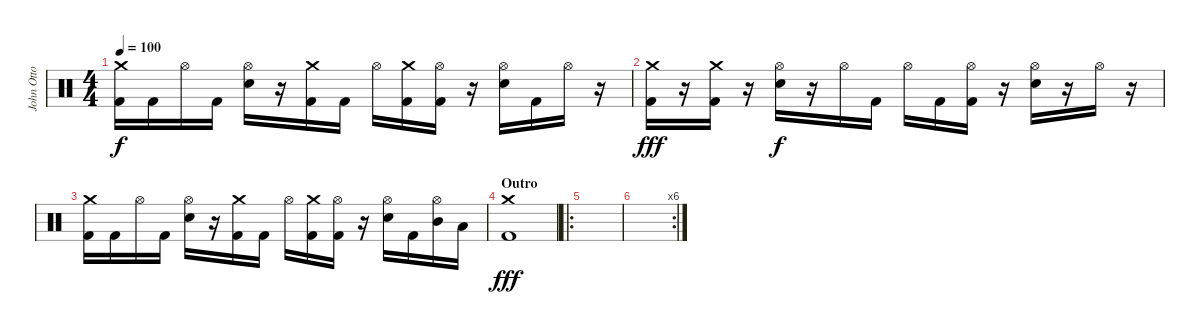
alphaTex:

\track ("John Otto - Drums" "John Otto ") {instrument percussion}
\staff {score}
\articulation defaults
\ts (4 4)
\tempo 100
\clef neutral
\ks c
("Crash medium (hit)" "Kick (hit) 2").16{dy f} "Kick (hit) 2".16 "Hi-Hat (open)".16 "Kick (hit) 2".16 ("Hi-Hat (open)" "Electric Snare (hit)").16 r.16 ("Crash medium (hit)" "Kick (hit) 2").16 "Kick (hit) 2".16 "Hi-Hat (open)".16 ("Crash medium (hit)" "Kick (hit) 2").16 ("Hi-Hat (open)" "Kick (hit) 2").16 r.16 ("Hi-Hat (open)" "Electric Snare (hit)").16 "Kick (hit) 2".16 "Hi-Hat (open)".16 r.16 |
("Crash medium (hit)" "Kick (hit) 2").16{dy fff} r.16 ("Crash medium (hit)" "Kick (hit) 2").16 r.16 ("Hi-Hat (open)" "Electric Snare (hit)").16{dy f} r.16 "Hi-Hat (open)".16 "Kick (hit) 2".16 "Hi-Hat (open)".16 "Kick (hit) 2".16 ("Hi-Hat (open)" "Kick (hit) 2").16 r.16 ("Hi-Hat (open)" "Electric Snare (hit)").16 r.16 "Hi-Hat (open)".16 r.16 |
("Crash medium (hit)" "Kick (hit) 2").16 "Kick (hit) 2".16 "Hi-Hat (open)".16 "Kick (hit) 2".16 ("Hi-Hat (open)" "Electric Snare (hit)").16 r.16 ("Crash medium (hit)" "Kick (hit) 2").16 "Kick (hit) 2".16 "Hi-Hat (open)".16 ("Crash medium (hit)" "Kick (hit) 2").16 ("Hi-Hat (open)" "Kick (hit) 2").16 r.16 ("Hi-Hat (open)" "Electric Snare (hit)").16 "Kick (hit) 2".16 ("Hi-Hat (open)" "Mid Tom (hit)").16 "Low Tom (hit)".16 |
\section ("" "Outro")
("Crash medium (hit)" "Kick (hit) 2").1{dy fff} |
\ro
|
\rc 6
